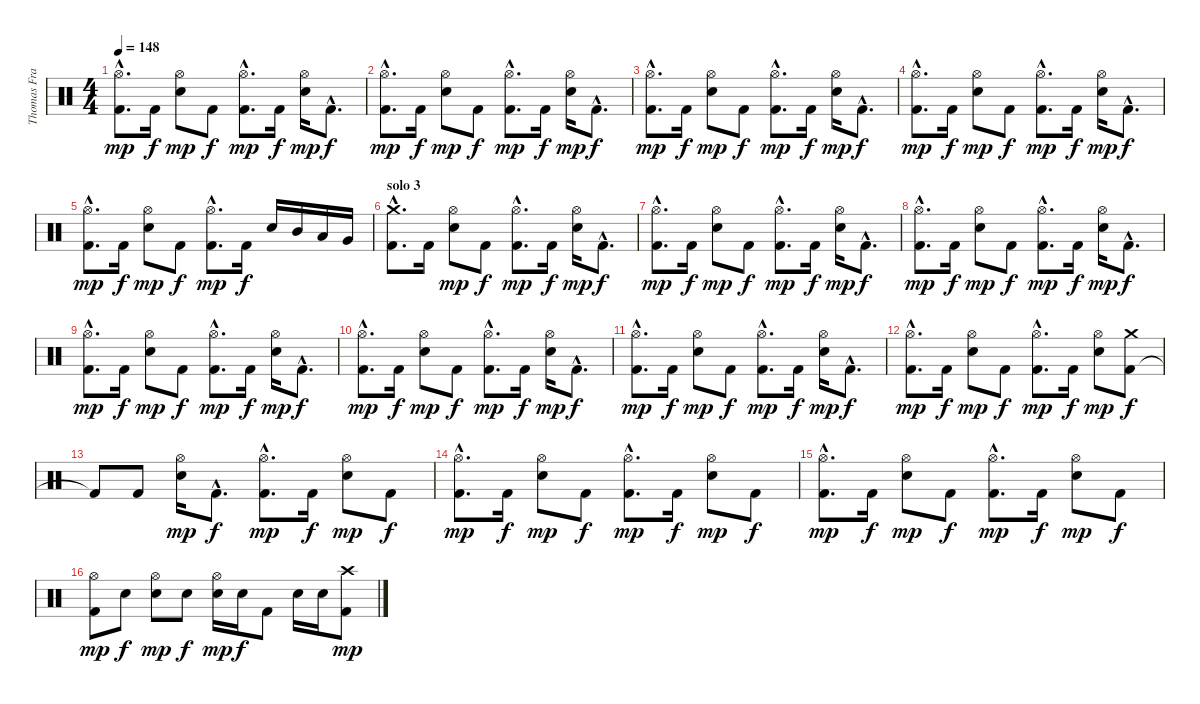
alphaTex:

\track ("Thomas Franke" "Thomas Fra") {instrument percussion}
\staff {score}
\articulation defaults
\ts (4 4)
\tempo 148
\clef neutral
\ks c
("Kick (hit) 2"{hac} "Hi-Hat (open)"{hac}).8{d dy mp} "Kick (hit) 2".16{dy f} ("Hi-Hat (open)" "Snare (hit) 2").8{dy mp} "Kick (hit) 2".8{dy f} ("Kick (hit) 2"{hac} "Hi-Hat (open)"{hac}).8{d dy mp} "Kick (hit) 2".16{dy f} ("Hi-Hat (open)" "Snare (hit) 2").16{dy mp} "Kick (hit) 2"{hac}.8{d dy f} |
("Kick (hit) 2"{hac} "Hi-Hat (open)"{hac}).8{d dy mp} "Kick (hit) 2".16{dy f} ("Hi-Hat (open)" "Snare (hit) 2").8{dy mp} "Kick (hit) 2".8{dy f} ("Kick (hit) 2"{hac} "Hi-Hat (open)"{hac}).8{d dy mp} "Kick (hit) 2".16{dy f} ("Hi-Hat (open)" "Snare (hit) 2").16{dy mp} "Kick (hit) 2"{hac}.8{d dy f} |
("Kick (hit) 2"{hac} "Hi-Hat (open)"{hac}).8{d dy mp} "Kick (hit) 2".16{dy f} ("Hi-Hat (open)" "Snare (hit) 2").8{dy mp} "Kick (hit) 2".8{dy f} ("Kick (hit) 2"{hac} "Hi-Hat (open)"{hac}).8{d dy mp} "Kick (hit) 2".16{dy f} ("Hi-Hat (open)" "Snare (hit) 2").16{dy mp} "Kick (hit) 2"{hac}.8{d dy f} |
("Kick (hit) 2"{hac} "Hi-Hat (open)"{hac}).8{d dy mp} "Kick (hit) 2".16{dy f} ("Hi-Hat (open)" "Snare (hit) 2").8{dy mp} "Kick (hit) 2".8{dy f} ("Kick (hit) 2"{hac} "Hi-Hat (open)"{hac}).8{d dy mp} "Kick (hit) 2".16{dy f} ("Hi-Hat (open)" "Snare (hit) 2").16{dy mp} "Kick (hit) 2"{hac}.8{d dy f} |
("Kick (hit) 2"{hac} "Hi-Hat (open)"{hac}).8{d dy mp} "Kick (hit) 2".16{dy f} ("Hi-Hat (open)" "Snare (hit) 2").8{dy mp} "Kick (hit) 2".8{dy f} ("Kick (hit) 2"{hac} "Hi-Hat (open)"{hac}).8{d dy mp} "Kick (hit) 2".16{dy f} "Snare (hit) 2".16 "Mid Tom (hit)".16 "Low Tom (hit)".16 "Very Low Tom (hit)".16 |
\section ("" "solo 3")
("Kick (hit) 2"{hac} "Crash medium (hit)"{hac}).8{d} "Kick (hit) 2".16 ("Hi-Hat (open)" "Snare (hit) 2").8{dy mp} "Kick (hit) 2".8{dy f} ("Kick (hit) 2"{hac} "Hi-Hat (open)"{hac}).8{d dy mp} "Kick (hit) 2".16{dy f} ("Hi-Hat (open)" "Snare (hit) 2").16{dy mp} "Kick (hit) 2"{hac}.8{d dy f} |
("Kick (hit) 2"{hac} "Hi-Hat (open)"{hac}).8{d dy mp} "Kick (hit) 2".16{dy f} ("Hi-Hat (open)" "Snare (hit) 2").8{dy mp} "Kick (hit) 2".8{dy f} ("Kick (hit) 2"{hac} "Hi-Hat (open)"{hac}).8{d dy mp} "Kick (hit) 2".16{dy f} ("Hi-Hat (open)" "Snare (hit) 2").16{dy mp} "Kick (hit) 2"{hac}.8{d dy f} |
("Kick (hit) 2"{hac} "Hi-Hat (open)"{hac}).8{d dy mp} "Kick (hit) 2".16{dy f} ("Hi-Hat (open)" "Snare (hit) 2").8{dy mp} "Kick (hit) 2".8{dy f} ("Kick (hit) 2"{hac} "Hi-Hat (open)"{hac}).8{d dy mp} "Kick (hit) 2".16{dy f} ("Hi-Hat (open)" "Snare (hit) 2").16{dy mp} "Kick (hit) 2"{hac}.8{d dy f} |
("Kick (hit) 2"{hac} "Hi-Hat (open)"{hac}).8{d dy mp} "Kick (hit) 2".16{dy f} ("Hi-Hat (open)" "Snare (hit) 2").8{dy mp} "Kick (hit) 2".8{dy f} ("Kick (hit) 2"{hac} "Hi-Hat (open)"{hac}).8{d dy mp} "Kick (hit) 2".16{dy f} ("Hi-Hat (open)" "Snare (hit) 2").16{dy mp} "Kick (hit) 2"{hac}.8{d dy f} |
("Kick (hit) 2"{hac} "Hi-Hat (open)"{hac}).8{d dy mp} "Kick (hit) 2".16{dy f} ("Hi-Hat (open)" "Snare (hit) 2").8{dy mp} "Kick (hit) 2".8{dy f} ("Kick (hit) 2"{hac} "Hi-Hat (open)"{hac}).8{d dy mp} "Kick (hit) 2".16{dy f} ("Hi-Hat (open)" "Snare (hit) 2").16{dy mp} "Kick (hit) 2"{hac}.8{d dy f} |
("Kick (hit) 2"{hac} "Hi-Hat (open)"{hac}).8{d dy mp} "Kick (hit) 2".16{dy f} ("Hi-Hat (open)" "Snare (hit) 2").8{dy mp} "Kick (hit) 2".8{dy f} ("Kick (hit) 2"{hac} "Hi-Hat (open)"{hac}).8{d dy mp} "Kick (hit) 2".16{dy f} ("Hi-Hat (open)" "Snare (hit) 2").16{dy mp} "Kick (hit) 2"{hac}.8{d dy f} |
("Kick (hit) 2"{hac} "Hi-Hat (open)"{hac}).8{d dy mp} "Kick (hit) 2".16{dy f} ("Hi-Hat (open)" "Snare (hit) 2").8{dy mp} "Kick (hit) 2".8{dy f} ("Kick (hit) 2"{hac} "Hi-Hat (open)"{hac}).8{d dy mp} "Kick (hit) 2".16{dy f} ("Hi-Hat (open)" "Snare (hit) 2").8{dy mp} ("Kick (hit) 2" "Crash medium (hit)").8{dy f} |
"Kick (hit) 2"{t}.8 "Kick (hit) 2".8 ("Hi-Hat (open)" "Snare (hit) 2").16{dy mp} "Kick (hit) 2"{hac}.8{d dy f} ("Kick (hit) 2"{hac} "Hi-Hat (open)"{hac}).8{d dy mp} "Kick (hit) 2".16{dy f} ("Hi-Hat (open)" "Snare (hit) 2").8{dy mp} "Kick (hit) 2".8{dy f} |
("Kick (hit) 2"{hac} "Hi-Hat (open)"{hac}).8{d dy mp} "Kick (hit) 2".16{dy f} ("Hi-Hat (open)" "Snare (hit) 2").8{dy mp} "Kick (hit) 2".8{dy f} ("Kick (hit) 2"{hac} "Hi-Hat (open)"{hac}).8{d dy mp} "Kick (hit) 2".16{dy f} ("Hi-Hat (open)" "Snare (hit) 2").8{dy mp} "Kick (hit) 2".8{dy f} |
("Kick (hit) 2"{hac} "Hi-Hat (open)"{hac}).8{d dy mp} "Kick (hit) 2".16{dy f} ("Hi-Hat (open)" "Snare (hit) 2").8{dy mp} "Kick (hit) 2".8{dy f} ("Kick (hit) 2"{hac} "Hi-Hat (open)"{hac}).8{d dy mp} "Kick (hit) 2".16{dy f} ("Hi-Hat (open)" "Snare (hit) 2").8{dy mp} "Kick (hit) 2".8{dy f} |
("Kick (hit) 2" "Hi-Hat (open)").8{dy mp} "Snare (hit) 2".8{dy f} ("Hi-Hat (open)" "Snare (hit) 2").8{dy mp} "Snare (hit) 2".8{dy f} ("Hi-Hat (open)" "Snare (hit) 2").16{dy mp} "Snare (hit) 2".16{dy f} "Kick (hit) 2".8 "Snare (hit) 2".16 "Snare (hit) 2".16 ("Kick (hit) 2" "Crash high (hit)").8{dy mp}
